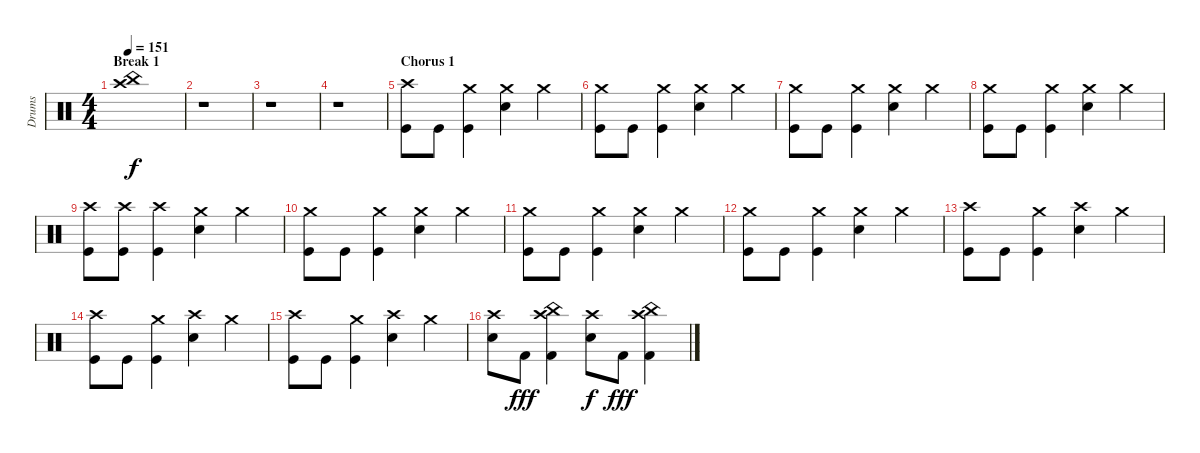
\track ("Drums" "Drums") {instrument percussion}
\staff {score}
\articulation defaults
\ts (4 4)
\section ("" "Break 1")
\tempo 151
\clef neutral
\ks c
("Crash high (hit)" "China (hit)").1{dy f} |
r.1 |
r.1 |
r.1 |
\section ("" "Chorus 1")
("Crash high (hit)" "Kick (hit)").8 "Kick (hit)".8 ("Crash medium (hit)" "Kick (hit)").4 ("Crash medium (hit)" "Electric Snare (hit)").4 "Crash medium (hit)".4 |
("Crash medium (hit)" "Kick (hit)").8 "Kick (hit)".8 ("Crash medium (hit)" "Kick (hit)").4 ("Crash medium (hit)" "Electric Snare (hit)").4 "Crash medium (hit)".4 |
("Crash medium (hit)" "Kick (hit)").8 "Kick (hit)".8 ("Crash medium (hit)" "Kick (hit)").4 ("Crash medium (hit)" "Electric Snare (hit)").4 "Crash medium (hit)".4 |
("Crash medium (hit)" "Kick (hit)").8 "Kick (hit)".8 ("Crash medium (hit)" "Kick (hit)").4 ("Crash medium (hit)" "Electric Snare (hit)").4 "Crash medium (hit)".4 |
("Crash high (hit)" "Kick (hit)").8 ("Crash high (hit)" "Kick (hit)").8 ("Crash high (hit)" "Kick (hit)").4 ("Crash medium (hit)" "Electric Snare (hit)").4 "Crash medium (hit)".4 |
("Crash medium (hit)" "Kick (hit)").8 "Kick (hit)".8 ("Crash medium (hit)" "Kick (hit)").4 ("Crash medium (hit)" "Electric Snare (hit)").4 "Crash medium (hit)".4 |
("Crash medium (hit)" "Kick (hit)").8 "Kick (hit)".8 ("Crash medium (hit)" "Kick (hit)").4 ("Crash medium (hit)" "Electric Snare (hit)").4 "Crash medium (hit)".4 |
("Crash medium (hit)" "Kick (hit)").8 "Kick (hit)".8 ("Crash medium (hit)" "Kick (hit)").4 ("Crash medium (hit)" "Electric Snare (hit)").4 "Crash medium (hit)".4 |
("Crash high (hit)" "Kick (hit)").8 "Kick (hit)".8 ("Crash medium (hit)" "Kick (hit)").4 ("Crash high (hit)" "Electric Snare (hit)").4 "Crash medium (hit)".4 |
("Crash high (hit)" "Kick (hit)").8 "Kick (hit)".8 ("Crash medium (hit)" "Kick (hit)").4 ("Crash high (hit)" "Electric Snare (hit)").4 "Crash medium (hit)".4 |
("Crash high (hit)" "Kick (hit)").8 "Kick (hit)".8 ("Crash medium (hit)" "Kick (hit)").4 ("Crash high (hit)" "Electric Snare (hit)").4 "Crash medium (hit)".4 |
("Crash high (hit)" "Electric Snare (hit)").8 "Kick (hit) 2".8{dy fff} ("Crash high (hit)" "China (hit)" "Kick (hit) 2").4 ("Crash high (hit)" "Electric Snare (hit)").8{dy f} "Kick (hit) 2".8{dy fff} ("Crash high (hit)" "China (hit)" "Kick (hit) 2").4
